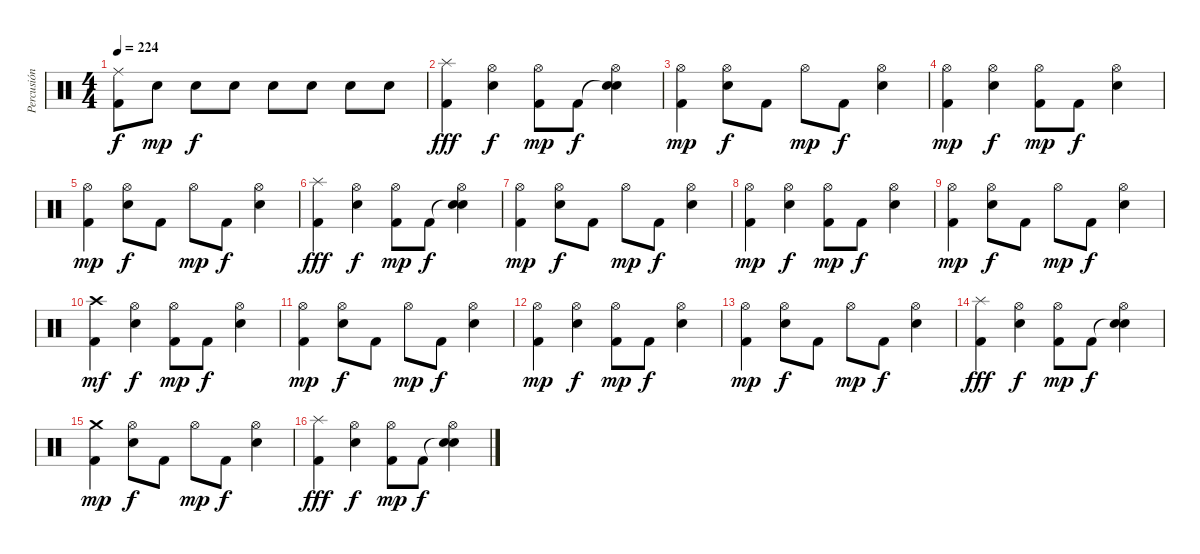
\track ("Percusión" "Percusión") {instrument percussion}
\staff {score}
\articulation defaults
\ts (4 4)
\tempo 224
\clef neutral
\ks c
("Ride (middle)" "Kick (hit) 2").8{dy f} "Electric Snare (hit)".8{dy mp} "Electric Snare (hit)".8{dy f} "Electric Snare (hit)".8 "Electric Snare (hit)".8 "Electric Snare (hit)".8 "Electric Snare (hit)".8 "Electric Snare (hit)".8 |
("Splash (hit)" "Kick (hit) 2").4{dy fff} ("Hi-Hat (open)" "Electric Snare (hit)").4{dy f} ("Hi-Hat (open)" "Kick (hit) 2").8{dy mp} "Kick (hit) 2".8{dy f} ("Snare (hit)"{t} "Hi-Hat (open)" "Electric Snare (hit)").4 |
("Hi-Hat (open)" "Kick (hit) 2").4{dy mp} ("Hi-Hat (open)" "Electric Snare (hit)").8{dy f} "Kick (hit) 2".8 "Hi-Hat (open)".8{dy mp} "Kick (hit) 2".8{dy f} ("Hi-Hat (open)" "Electric Snare (hit)").4 |
("Hi-Hat (open)" "Kick (hit) 2").4{dy mp} ("Hi-Hat (open)" "Electric Snare (hit)").4{dy f} ("Hi-Hat (open)" "Kick (hit) 2").8{dy mp} "Kick (hit) 2".8{dy f} ("Hi-Hat (open)" "Electric Snare (hit)").4 |
("Hi-Hat (open)" "Kick (hit) 2").4{dy mp} ("Hi-Hat (open)" "Electric Snare (hit)").8{dy f} "Kick (hit) 2".8 "Hi-Hat (open)".8{dy mp} "Kick (hit) 2".8{dy f} ("Hi-Hat (open)" "Electric Snare (hit)").4 |
("Splash (hit)" "Kick (hit) 2").4{dy fff} ("Hi-Hat (open)" "Electric Snare (hit)").4{dy f} ("Hi-Hat (open)" "Kick (hit) 2").8{dy mp} "Kick (hit) 2".8{dy f} ("Snare (hit)"{t} "Hi-Hat (open)" "Electric Snare (hit)").4 |
("Hi-Hat (open)" "Kick (hit) 2").4{dy mp} ("Hi-Hat (open)" "Electric Snare (hit)").8{dy f} "Kick (hit) 2".8 "Hi-Hat (open)".8{dy mp} "Kick (hit) 2".8{dy f} ("Hi-Hat (open)" "Electric Snare (hit)").4 |
("Hi-Hat (open)" "Kick (hit) 2").4{dy mp} ("Hi-Hat (open)" "Electric Snare (hit)").4{dy f} ("Hi-Hat (open)" "Kick (hit) 2").8{dy mp} "Kick (hit) 2".8{dy f} ("Hi-Hat (open)" "Electric Snare (hit)").4 |
("Hi-Hat (open)" "Kick (hit) 2").4{dy mp} ("Hi-Hat (open)" "Electric Snare (hit)").8{dy f} "Kick (hit) 2".8 "Hi-Hat (open)".8{dy mp} "Kick (hit) 2".8{dy f} ("Hi-Hat (open)" "Electric Snare (hit)").4 |
("Crash high (hit)" "Kick (hit) 2").4{dy mf} ("Hi-Hat (open)" "Electric Snare (hit)").4{dy f} ("Hi-Hat (open)" "Kick (hit) 2").8{dy mp} "Kick (hit) 2".8{dy f} ("Hi-Hat (open)" "Electric Snare (hit)").4 |
("Hi-Hat (open)" "Kick (hit) 2").4{dy mp} ("Hi-Hat (open)" "Electric Snare (hit)").8{dy f} "Kick (hit) 2".8 "Hi-Hat (open)".8{dy mp} "Kick (hit) 2".8{dy f} ("Hi-Hat (open)" "Electric Snare (hit)").4 |
("Hi-Hat (open)" "Kick (hit) 2").4{dy mp} ("Hi-Hat (open)" "Electric Snare (hit)").4{dy f} ("Hi-Hat (open)" "Kick (hit) 2").8{dy mp} "Kick (hit) 2".8{dy f} ("Hi-Hat (open)" "Electric Snare (hit)").4 |
("Hi-Hat (open)" "Kick (hit) 2").4{dy mp} ("Hi-Hat (open)" "Electric Snare (hit)").8{dy f} "Kick (hit) 2".8 "Hi-Hat (open)".8{dy mp} "Kick (hit) 2".8{dy f} ("Hi-Hat (open)" "Electric Snare (hit)").4 |
("Splash (hit)" "Kick (hit) 2").4{dy fff} ("Hi-Hat (open)" "Electric Snare (hit)").4{dy f} ("Hi-Hat (open)" "Kick (hit) 2").8{dy mp} "Kick (hit) 2".8{dy f} ("Snare (hit)"{t} "Hi-Hat (open)" "Electric Snare (hit)").4 |
("Crash medium (hit)" "Kick (hit) 2").4{dy mp} ("Hi-Hat (open)" "Electric Snare (hit)").8{dy f} "Kick (hit) 2".8 "Hi-Hat (open)".8{dy mp} "Kick (hit) 2".8{dy f} ("Hi-Hat (open)" "Electric Snare (hit)").4 |
("Splash (hit)" "Kick (hit) 2").4{dy fff} ("Hi-Hat (open)" "Electric Snare (hit)").4{dy f} ("Hi-Hat (open)" "Kick (hit) 2").8{dy mp} "Kick (hit) 2".8{dy f} ("Snare (hit)"{t} "Hi-Hat (open)" "Electric Snare (hit)").4
